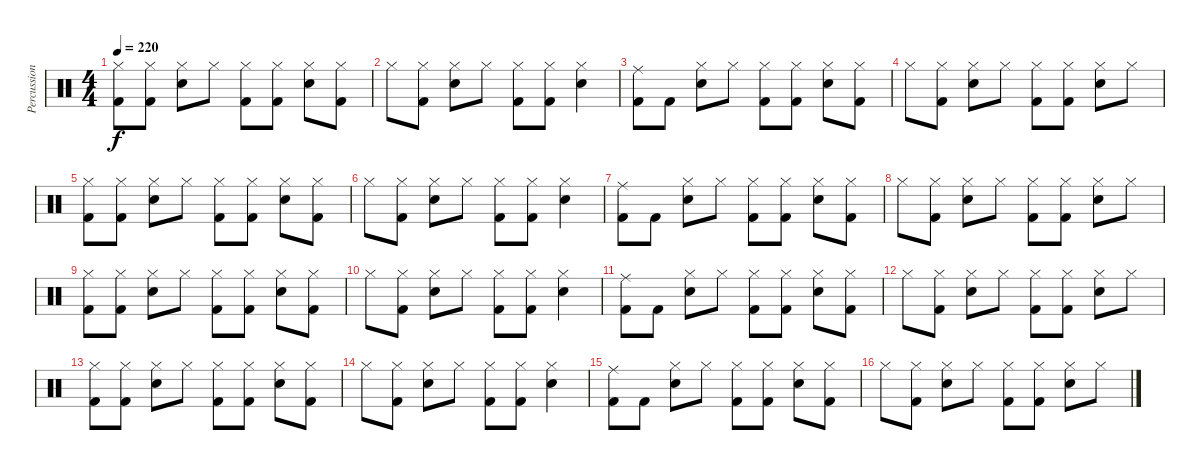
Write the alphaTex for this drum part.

\track ("Percussion" "Percussion") {instrument percussion}
\staff {score}
\articulation defaults
\ts (4 4)
\tempo 220
\clef neutral
\ks c
("Hi-Hat (closed)" "Kick (hit) 2").8{dy f} ("Hi-Hat (closed)" "Kick (hit) 2").8 ("Hi-Hat (closed)" "Electric Snare (hit)").8 "Hi-Hat (closed)".8 ("Hi-Hat (closed)" "Kick (hit) 2").8 ("Hi-Hat (closed)" "Kick (hit) 2").8 ("Hi-Hat (closed)" "Electric Snare (hit)").8 ("Hi-Hat (closed)" "Kick (hit) 2").8 |
"Hi-Hat (closed)".8 ("Hi-Hat (closed)" "Kick (hit) 2").8 ("Hi-Hat (closed)" "Electric Snare (hit)").8 "Hi-Hat (closed)".8 ("Hi-Hat (closed)" "Kick (hit) 2").8 ("Hi-Hat (closed)" "Kick (hit) 2").8 ("Hi-Hat (closed)" "Electric Snare (hit)").4 |
("Ride (middle)" "Kick (hit) 2").8 "Kick (hit) 2".8 ("Hi-Hat (closed)" "Electric Snare (hit)").8 "Hi-Hat (closed)".8 ("Hi-Hat (closed)" "Kick (hit) 2").8 ("Hi-Hat (closed)" "Kick (hit) 2").8 ("Hi-Hat (closed)" "Electric Snare (hit)").8 ("Hi-Hat (closed)" "Kick (hit) 2").8 |
"Hi-Hat (closed)".8 ("Hi-Hat (closed)" "Kick (hit) 2").8 ("Hi-Hat (closed)" "Electric Snare (hit)").8 "Hi-Hat (closed)".8 ("Hi-Hat (closed)" "Kick (hit) 2").8 ("Hi-Hat (closed)" "Kick (hit) 2").8 ("Hi-Hat (closed)" "Electric Snare (hit)").8 "Hi-Hat (closed)".8 |
("Hi-Hat (closed)" "Kick (hit) 2").8 ("Hi-Hat (closed)" "Kick (hit) 2").8 ("Hi-Hat (closed)" "Electric Snare (hit)").8 "Hi-Hat (closed)".8 ("Hi-Hat (closed)" "Kick (hit) 2").8 ("Hi-Hat (closed)" "Kick (hit) 2").8 ("Hi-Hat (closed)" "Electric Snare (hit)").8 ("Hi-Hat (closed)" "Kick (hit) 2").8 |
"Hi-Hat (closed)".8 ("Hi-Hat (closed)" "Kick (hit) 2").8 ("Hi-Hat (closed)" "Electric Snare (hit)").8 "Hi-Hat (closed)".8 ("Hi-Hat (closed)" "Kick (hit) 2").8 ("Hi-Hat (closed)" "Kick (hit) 2").8 ("Hi-Hat (closed)" "Electric Snare (hit)").4 |
("Ride (middle)" "Kick (hit) 2").8 "Kick (hit) 2".8 ("Hi-Hat (closed)" "Electric Snare (hit)").8 "Hi-Hat (closed)".8 ("Hi-Hat (closed)" "Kick (hit) 2").8 ("Hi-Hat (closed)" "Kick (hit) 2").8 ("Hi-Hat (closed)" "Electric Snare (hit)").8 ("Hi-Hat (closed)" "Kick (hit) 2").8 |
"Hi-Hat (closed)".8 ("Hi-Hat (closed)" "Kick (hit) 2").8 ("Hi-Hat (closed)" "Electric Snare (hit)").8 "Hi-Hat (closed)".8 ("Hi-Hat (closed)" "Kick (hit) 2").8 ("Hi-Hat (closed)" "Kick (hit) 2").8 ("Hi-Hat (closed)" "Electric Snare (hit)").8 "Hi-Hat (closed)".8 |
("Hi-Hat (closed)" "Kick (hit) 2").8 ("Hi-Hat (closed)" "Kick (hit) 2").8 ("Hi-Hat (closed)" "Electric Snare (hit)").8 "Hi-Hat (closed)".8 ("Hi-Hat (closed)" "Kick (hit) 2").8 ("Hi-Hat (closed)" "Kick (hit) 2").8 ("Hi-Hat (closed)" "Electric Snare (hit)").8 ("Hi-Hat (closed)" "Kick (hit) 2").8 |
"Hi-Hat (closed)".8 ("Hi-Hat (closed)" "Kick (hit) 2").8 ("Hi-Hat (closed)" "Electric Snare (hit)").8 "Hi-Hat (closed)".8 ("Hi-Hat (closed)" "Kick (hit) 2").8 ("Hi-Hat (closed)" "Kick (hit) 2").8 ("Hi-Hat (closed)" "Electric Snare (hit)").4 |
("Ride (middle)" "Kick (hit) 2").8 "Kick (hit) 2".8 ("Hi-Hat (closed)" "Electric Snare (hit)").8 "Hi-Hat (closed)".8 ("Hi-Hat (closed)" "Kick (hit) 2").8 ("Hi-Hat (closed)" "Kick (hit) 2").8 ("Hi-Hat (closed)" "Electric Snare (hit)").8 ("Hi-Hat (closed)" "Kick (hit) 2").8 |
"Hi-Hat (closed)".8 ("Hi-Hat (closed)" "Kick (hit) 2").8 ("Hi-Hat (closed)" "Electric Snare (hit)").8 "Hi-Hat (closed)".8 ("Hi-Hat (closed)" "Kick (hit) 2").8 ("Hi-Hat (closed)" "Kick (hit) 2").8 ("Hi-Hat (closed)" "Electric Snare (hit)").8 "Hi-Hat (closed)".8 |
("Hi-Hat (closed)" "Kick (hit) 2").8 ("Hi-Hat (closed)" "Kick (hit) 2").8 ("Hi-Hat (closed)" "Electric Snare (hit)").8 "Hi-Hat (closed)".8 ("Hi-Hat (closed)" "Kick (hit) 2").8 ("Hi-Hat (closed)" "Kick (hit) 2").8 ("Hi-Hat (closed)" "Electric Snare (hit)").8 ("Hi-Hat (closed)" "Kick (hit) 2").8 |
"Hi-Hat (closed)".8 ("Hi-Hat (closed)" "Kick (hit) 2").8 ("Hi-Hat (closed)" "Electric Snare (hit)").8 "Hi-Hat (closed)".8 ("Hi-Hat (closed)" "Kick (hit) 2").8 ("Hi-Hat (closed)" "Kick (hit) 2").8 ("Hi-Hat (closed)" "Electric Snare (hit)").4 |
("Ride (middle)" "Kick (hit) 2").8 "Kick (hit) 2".8 ("Hi-Hat (closed)" "Electric Snare (hit)").8 "Hi-Hat (closed)".8 ("Hi-Hat (closed)" "Kick (hit) 2").8 ("Hi-Hat (closed)" "Kick (hit) 2").8 ("Hi-Hat (closed)" "Electric Snare (hit)").8 ("Hi-Hat (closed)" "Kick (hit) 2").8 |
"Hi-Hat (closed)".8 ("Hi-Hat (closed)" "Kick (hit) 2").8 ("Hi-Hat (closed)" "Electric Snare (hit)").8 "Hi-Hat (closed)".8 ("Hi-Hat (closed)" "Kick (hit) 2").8 ("Hi-Hat (closed)" "Kick (hit) 2").8 ("Hi-Hat (closed)" "Electric Snare (hit)").8 "Hi-Hat (closed)".8
